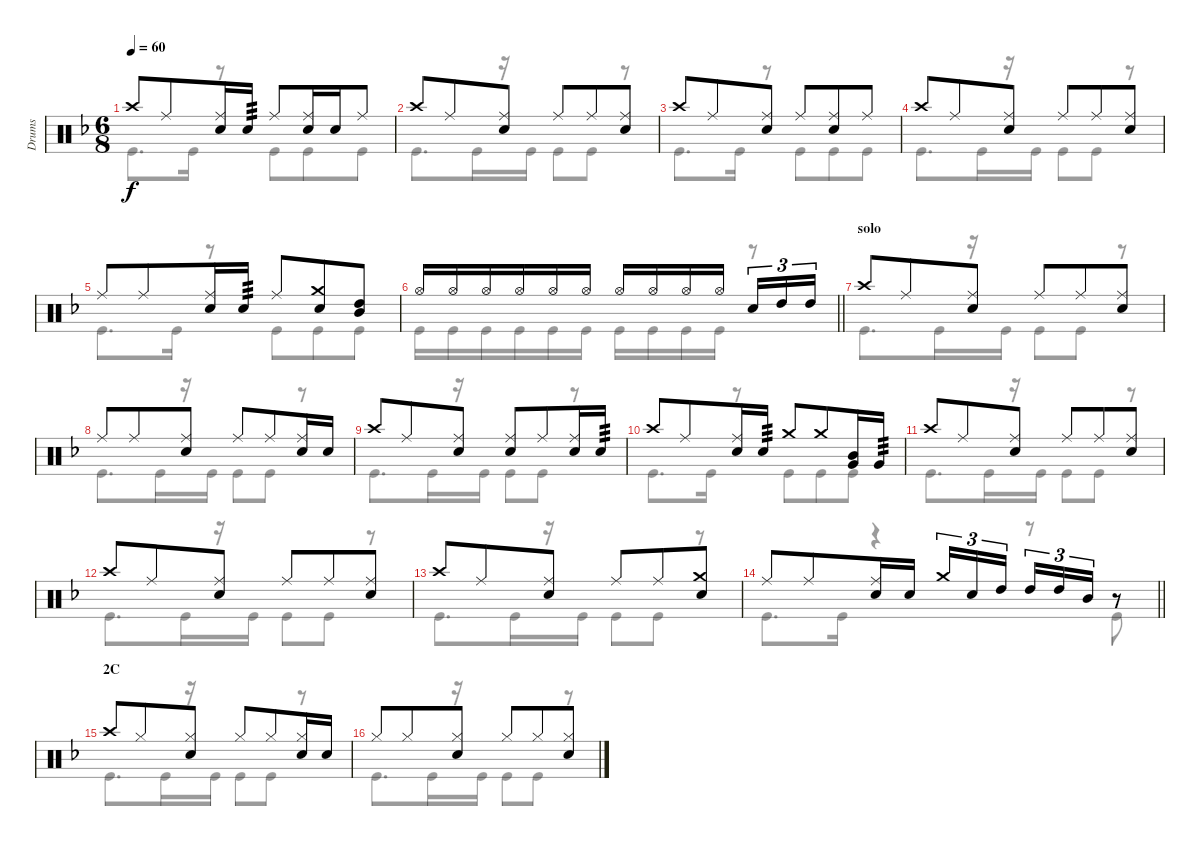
\track ("Drums" "Drums") {instrument percussion}
\staff {score}
\articulation defaults
\voice
\ts (6 8)
\tempo 60
\clef neutral
\ks f "Crash high (hit)".8{dy f} "Ride (middle)".8
("Ride (middle)" "Snare (hit) 2").16 "Snare (hit) 2".16{tp 3} "Ride (middle)".8 ("Ride (middle)" "Snare (hit) 2").16 "Snare (hit) 2".16 "Ride (middle)".8 |
"Crash high (hit)".8 "Ride (middle)".8 ("Ride (middle)" "Snare (hit) 2").8 "Ride (middle)".8 "Ride (middle)".8 ("Ride (middle)" "Snare (hit) 2").8 |
"Crash high (hit)".8 "Ride (middle)".8 ("Ride (middle)" "Snare (hit) 2").8 "Ride (middle)".8 ("Ride (middle)" "Snare (hit) 2").8 "Ride (middle)".8 |
"Crash high (hit)".8 "Ride (middle)".8 ("Ride (middle)" "Snare (hit) 2").8 "Ride (middle)".8 "Ride (middle)".8 ("Ride (middle)" "Snare (hit) 2").8 |
"Ride (middle)".8 "Ride (middle)".8 ("Ride (middle)" "Snare (hit) 2").16 "Snare (hit) 2".16{tp 3} "Ride (middle)".8 ("Crash medium (hit)" "Snare (hit) 2").8 ("High Tom (hit)" "Mid Tom (hit)").8 |
\barLineRight lightlight "Hi-Hat (open)".16 "Hi-Hat (open)".16 "Hi-Hat (open)".16 "Hi-Hat (open)".16 "Hi-Hat (open)".16 "Hi-Hat (open)".16 "Hi-Hat (open)".16 "Hi-Hat (open)".16 "Hi-Hat (open)".16 "Hi-Hat (open)".16{beam splitsecondary} "Snare (hit) 2".16{tu (3 2)} "High Tom (hit)".16{tu (3 2)} "High Tom (hit)".16{tu (3 2)}
|
\section ("" "solo")
"Crash high (hit)".8 "Ride (middle)".8 ("Ride (middle)" "Snare (hit) 2").8 "Ride (middle)".8 "Ride (middle)".8 ("Ride (middle)" "Snare (hit) 2").8 |
"Ride (middle)".8 "Ride (middle)".8 ("Ride (middle)" "Snare (hit) 2").8 "Ride (middle)".8 "Ride (middle)".8 ("Ride (middle)" "Snare (hit) 2").16 "Snare (hit) 2".16 |
"Crash high (hit)".8 "Ride (middle)".8 ("Ride (middle)" "Snare (hit) 2").8 ("Ride (middle)" "Snare (hit) 2").8 "Ride (middle)".8 ("Ride (middle)" "Snare (hit) 2").16 "Snare (hit) 2".16{tp 3} |
"Crash high (hit)".8 "Ride (middle)".8 ("Ride (middle)" "Snare (hit) 2").16 "Snare (hit) 2".16{tp 3} "Crash medium (hit)".8 "Crash medium (hit)".8 ("Mid Tom (hit)" "Very Low Tom (hit)").16 "Very Low Tom (hit)".16{tp 3} |
"Crash high (hit)".8 "Ride (middle)".8 ("Ride (middle)" "Snare (hit) 2").8 "Ride (middle)".8 "Ride (middle)".8 ("Ride (middle)" "Snare (hit) 2").8 |
"Crash high (hit)".8 "Ride (middle)".8 ("Ride (middle)" "Snare (hit) 2").8 "Ride (middle)".8 "Ride (middle)".8 ("Ride (middle)" "Snare (hit) 2").8 |
"Crash high (hit)".8 "Ride (middle)".8 ("Ride (middle)" "Snare (hit) 2").8 "Ride (middle)".8 "Ride (middle)".8 ("Crash medium (hit)" "Snare (hit) 2").8 |
\barLineRight lightlight "Ride (middle)".8 "Ride (middle)".8
("Ride (middle)" "Snare (hit) 2").16 "Snare (hit) 2".16 "Crash medium (hit)".16{tu (3 2)} "Snare (hit) 2".16{tu (3 2)} "High Tom (hit)".16{tu (3 2) beam splitsecondary} "High Tom (hit)".16{tu (3 2)} "High Tom (hit)".16{tu (3 2)} "Mid Tom (hit)".16{tu (3 2)} r.8 |
\section ("" "2C")
"Crash high (hit)".8 "Hi-Hat (closed)".8 ("Hi-Hat (closed)" "Snare (hit) 2").8 "Hi-Hat (closed)".8 "Hi-Hat (closed)".8 ("Hi-Hat (closed)" "Snare (hit) 2").16 "Snare (hit) 2".16 |
"Hi-Hat (closed)".8 "Hi-Hat (closed)".8 ("Hi-Hat (closed)" "Snare (hit) 2").8 "Hi-Hat (closed)".8 "Hi-Hat (closed)".8 ("Hi-Hat (closed)" "Snare (hit) 2").8
\voice
\clef neutral
\ottava regular
\simile none
\ks f "Kick (hit)".8{d dy f} "Kick (hit)".16
r.8 "Kick (hit)".8 "Kick (hit)".8 "Kick (hit)".8 |
"Kick (hit)".8{d} "Kick (hit)".16 r.16 "Kick (hit)".16 "Kick (hit)".8 "Kick (hit)".8 r.8 |
"Kick (hit)".8{d} "Kick (hit)".16 r.8 "Kick (hit)".8 "Kick (hit)".8 "Kick (hit)".8 |
"Kick (hit)".8{d} "Kick (hit)".16 r.16 "Kick (hit)".16 "Kick (hit)".8 "Kick (hit)".8 r.8 |
"Kick (hit)".8{d} "Kick (hit)".16 r.8 "Kick (hit)".8 "Kick (hit)".8 "Kick (hit)".8 |
\barLineRight lightlight "Kick (hit)".16 "Kick (hit)".16 "Kick (hit)".16 "Kick (hit)".16 "Kick (hit)".16 "Kick (hit)".16 "Kick (hit)".16 "Kick (hit)".16 "Kick (hit)".16 "Kick (hit)".16
r.8 |
"Kick (hit)".8{d} "Kick (hit)".16 r.16 "Kick (hit)".16 "Kick (hit)".8 "Kick (hit)".8 r.8 |
"Kick (hit)".8{d} "Kick (hit)".16 r.16 "Kick (hit)".16 "Kick (hit)".8 "Kick (hit)".8 r.8 |
"Kick (hit)".8{d} "Kick (hit)".16 r.16 "Kick (hit)".16 "Kick (hit)".8 "Kick (hit)".8 r.8 |
"Kick (hit)".8{d} "Kick (hit)".16 r.8 "Kick (hit)".8 "Kick (hit)".8 "Kick (hit)".8 |
"Kick (hit)".8{d} "Kick (hit)".16 r.16 "Kick (hit)".16 "Kick (hit)".8 "Kick (hit)".8 r.8 |
"Kick (hit)".8{d} "Kick (hit)".16 r.16 "Kick (hit)".16 "Kick (hit)".8 "Kick (hit)".8 r.8 |
"Kick (hit)".8{d} "Kick (hit)".16 r.16 "Kick (hit)".16 "Kick (hit)".8 "Kick (hit)".8 r.8 |
\barLineRight lightlight "Kick (hit)".8{d} "Kick (hit)".16
r.4 r.8 "Kick (hit)".8 |
"Kick (hit)".8{d} "Kick (hit)".16 r.16 "Kick (hit)".16 "Kick (hit)".8 "Kick (hit)".8 r.8 |
"Kick (hit)".8{d} "Kick (hit)".16 r.16 "Kick (hit)".16 "Kick (hit)".8 "Kick (hit)".8 r.8
